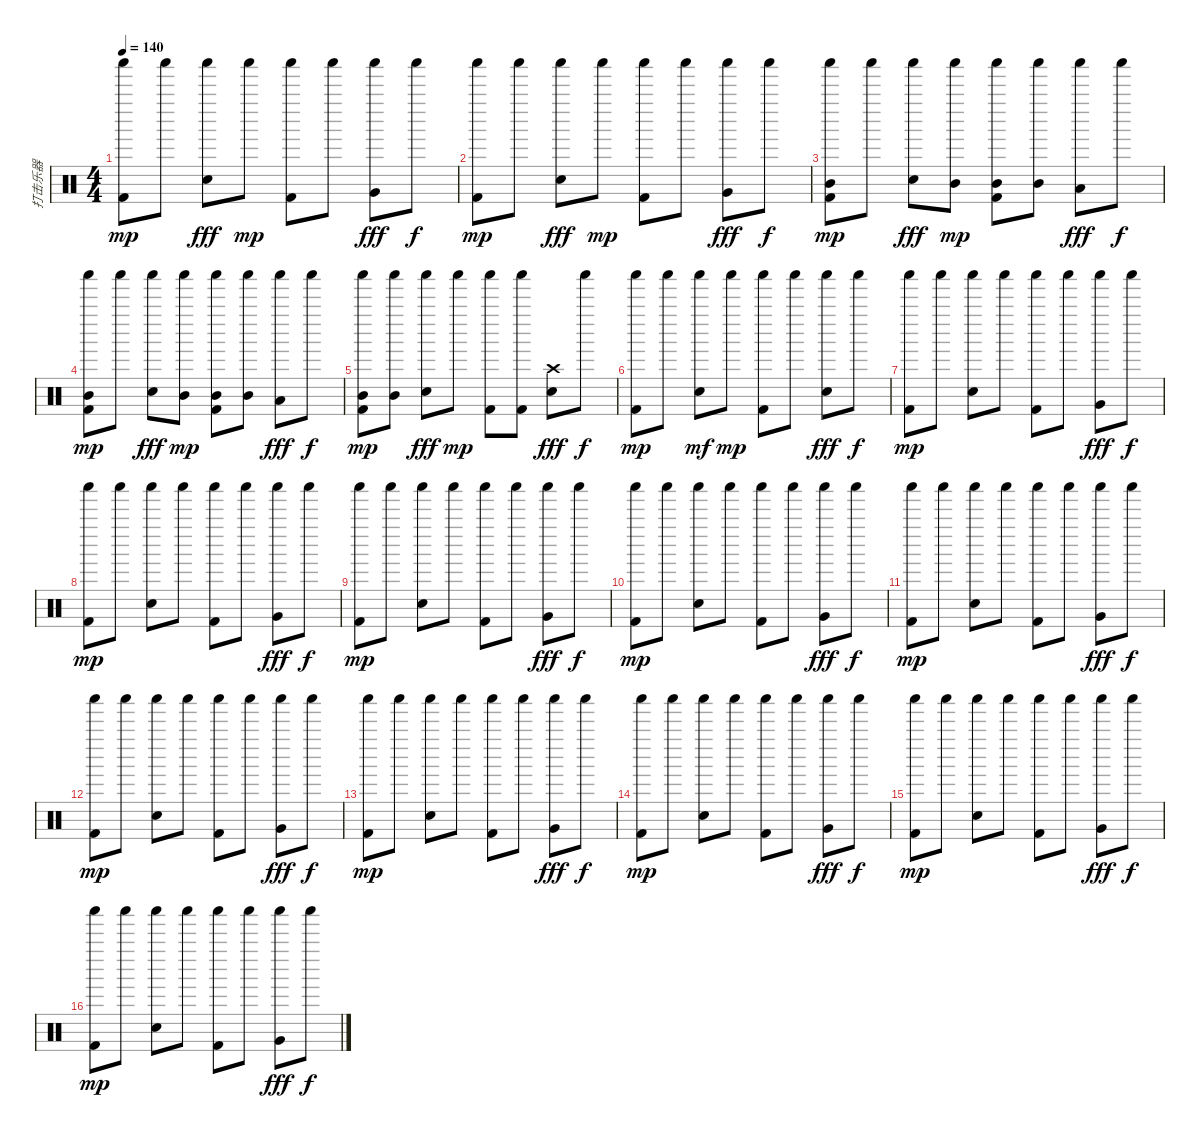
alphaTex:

\track ("打击乐器" "打击乐器") {instrument percussion}
\staff {score}
\articulation defaults
\ts (4 4)
\tempo 140
\clef neutral
\ks c
("Shaker (hit)" "Kick (hit) 2").8{dy mp} "Shaker (hit)".8 ("Shaker (hit)" "Electric Snare (hit)").8{dy fff} "Shaker (hit)".8{dy mp} ("Shaker (hit)" "Kick (hit) 2").8 "Shaker (hit)".8 ("Shaker (hit)" "Very Low Tom (hit)").8{dy fff} "Shaker (hit)".8{dy f} |
("Shaker (hit)" "Kick (hit) 2").8{dy mp} "Shaker (hit)".8 ("Shaker (hit)" "Electric Snare (hit)").8{dy fff} "Shaker (hit)".8{dy mp} ("Shaker (hit)" "Kick (hit) 2").8 "Shaker (hit)".8 ("Shaker (hit)" "Very Low Tom (hit)").8{dy fff} "Shaker (hit)".8{dy f} |
("Shaker (hit)" "Mid Tom (hit)" "Kick (hit) 2").8{dy mp} "Shaker (hit)".8 ("Shaker (hit)" "Electric Snare (hit)").8{dy fff} ("Shaker (hit)" "Mid Tom (hit)").8{dy mp} ("Shaker (hit)" "Mid Tom (hit)" "Kick (hit) 2").8 ("Shaker (hit)" "Mid Tom (hit)").8 ("Shaker (hit)" "Low Tom (hit)").8{dy fff} "Shaker (hit)".8{dy f} |
("Shaker (hit)" "Mid Tom (hit)" "Kick (hit) 2").8{dy mp} "Shaker (hit)".8 ("Shaker (hit)" "Electric Snare (hit)").8{dy fff} ("Shaker (hit)" "Mid Tom (hit)").8{dy mp} ("Shaker (hit)" "Mid Tom (hit)" "Kick (hit) 2").8 ("Shaker (hit)" "Mid Tom (hit)").8 ("Shaker (hit)" "Low Tom (hit)").8{dy fff} "Shaker (hit)".8{dy f} |
("Shaker (hit)" "Mid Tom (hit)" "Kick (hit) 2").8{dy mp} ("Shaker (hit)" "Mid Tom (hit)").8 ("Shaker (hit)" "Electric Snare (hit)").8{dy fff} "Shaker (hit)".8{dy mp} ("Shaker (hit)" "Kick (hit) 2").8 ("Shaker (hit)" "Kick (hit) 2").8 ("Crash high (hit)" "Electric Snare (hit)").8{dy fff} "Shaker (hit)".8{dy f} |
("Shaker (hit)" "Kick (hit) 2").8{dy mp} "Shaker (hit)".8 ("Shaker (hit)" "Electric Snare (hit)").8{dy mf} "Shaker (hit)".8{dy mp} ("Shaker (hit)" "Kick (hit) 2").8 "Shaker (hit)".8 ("Shaker (hit)" "Electric Snare (hit)").8{dy fff} "Shaker (hit)".8{dy f} |
("Shaker (hit)" "Kick (hit) 2").8{dy mp} "Shaker (hit)".8 ("Shaker (hit)" "Electric Snare (hit)").8 "Shaker (hit)".8 ("Shaker (hit)" "Kick (hit) 2").8 "Shaker (hit)".8 ("Shaker (hit)" "Very Low Tom (hit)").8{dy fff} "Shaker (hit)".8{dy f} |
("Shaker (hit)" "Kick (hit) 2").8{dy mp} "Shaker (hit)".8 ("Shaker (hit)" "Electric Snare (hit)").8 "Shaker (hit)".8 ("Shaker (hit)" "Kick (hit) 2").8 "Shaker (hit)".8 ("Shaker (hit)" "Very Low Tom (hit)").8{dy fff} "Shaker (hit)".8{dy f} |
("Shaker (hit)" "Kick (hit) 2").8{dy mp} "Shaker (hit)".8 ("Shaker (hit)" "Electric Snare (hit)").8 "Shaker (hit)".8 ("Shaker (hit)" "Kick (hit) 2").8 "Shaker (hit)".8 ("Shaker (hit)" "Very Low Tom (hit)").8{dy fff} "Shaker (hit)".8{dy f} |
("Shaker (hit)" "Kick (hit) 2").8{dy mp} "Shaker (hit)".8 ("Shaker (hit)" "Electric Snare (hit)").8 "Shaker (hit)".8 ("Shaker (hit)" "Kick (hit) 2").8 "Shaker (hit)".8 ("Shaker (hit)" "Very Low Tom (hit)").8{dy fff} "Shaker (hit)".8{dy f} |
("Shaker (hit)" "Kick (hit) 2").8{dy mp} "Shaker (hit)".8 ("Shaker (hit)" "Electric Snare (hit)").8 "Shaker (hit)".8 ("Shaker (hit)" "Kick (hit) 2").8 "Shaker (hit)".8 ("Shaker (hit)" "Very Low Tom (hit)").8{dy fff} "Shaker (hit)".8{dy f} |
("Shaker (hit)" "Kick (hit) 2").8{dy mp} "Shaker (hit)".8 ("Shaker (hit)" "Electric Snare (hit)").8 "Shaker (hit)".8 ("Shaker (hit)" "Kick (hit) 2").8 "Shaker (hit)".8 ("Shaker (hit)" "Very Low Tom (hit)").8{dy fff} "Shaker (hit)".8{dy f} |
("Shaker (hit)" "Kick (hit) 2").8{dy mp} "Shaker (hit)".8 ("Shaker (hit)" "Electric Snare (hit)").8 "Shaker (hit)".8 ("Shaker (hit)" "Kick (hit) 2").8 "Shaker (hit)".8 ("Shaker (hit)" "Very Low Tom (hit)").8{dy fff} "Shaker (hit)".8{dy f} |
("Shaker (hit)" "Kick (hit) 2").8{dy mp} "Shaker (hit)".8 ("Shaker (hit)" "Electric Snare (hit)").8 "Shaker (hit)".8 ("Shaker (hit)" "Kick (hit) 2").8 "Shaker (hit)".8 ("Shaker (hit)" "Very Low Tom (hit)").8{dy fff} "Shaker (hit)".8{dy f} |
("Shaker (hit)" "Kick (hit) 2").8{dy mp} "Shaker (hit)".8 ("Shaker (hit)" "Electric Snare (hit)").8 "Shaker (hit)".8 ("Shaker (hit)" "Kick (hit) 2").8 "Shaker (hit)".8 ("Shaker (hit)" "Very Low Tom (hit)").8{dy fff} "Shaker (hit)".8{dy f} |
("Shaker (hit)" "Kick (hit) 2").8{dy mp} "Shaker (hit)".8 ("Shaker (hit)" "Electric Snare (hit)").8 "Shaker (hit)".8 ("Shaker (hit)" "Kick (hit) 2").8 "Shaker (hit)".8 ("Shaker (hit)" "Very Low Tom (hit)").8{dy fff} "Shaker (hit)".8{dy f}
